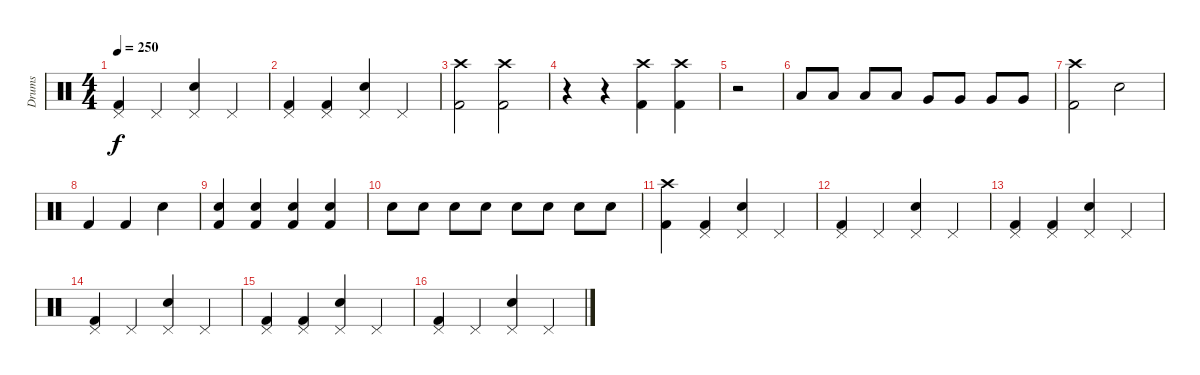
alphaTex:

\track ("Drums" "Drums") {instrument percussion}
\staff {score}
\articulation defaults
\ts (4 4)
\tempo 250
\clef neutral
\ks c
("Pedal Hi-Hat (hit)" "Kick (hit) 2").4{dy f} "Pedal Hi-Hat (hit)".4 ("Pedal Hi-Hat (hit)" "Electric Snare (hit)").4 "Pedal Hi-Hat (hit)".4 |
("Pedal Hi-Hat (hit)" "Kick (hit) 2").4 ("Pedal Hi-Hat (hit)" "Kick (hit) 2").4 ("Pedal Hi-Hat (hit)" "Electric Snare (hit)").4 "Pedal Hi-Hat (hit)".4 |
("Kick (hit) 2" "Crash high (hit)").2 ("Kick (hit) 2" "Crash high (hit)").2 |
r.4 r.4 ("Kick (hit) 2" "Crash high (hit)").4 ("Kick (hit) 2" "Crash high (hit)").4 |
r.2 |
"Low Tom (hit)".8 "Low Tom (hit)".8 "Low Tom (hit)".8 "Low Tom (hit)".8 "Very Low Tom (hit)".8 "Very Low Tom (hit)".8 "Very Low Tom (hit)".8 "Very Low Tom (hit)".8 |
("Kick (hit) 2" "Crash high (hit)").2 "Electric Snare (hit)".2 |
"Kick (hit) 2".4 "Kick (hit) 2".4 "Electric Snare (hit)".4 |
("Kick (hit) 2" "Electric Snare (hit)").4 ("Kick (hit) 2" "Electric Snare (hit)").4 ("Kick (hit) 2" "Electric Snare (hit)").4 ("Kick (hit) 2" "Electric Snare (hit)").4 |
"Electric Snare (hit)".8 "Electric Snare (hit)".8 "Electric Snare (hit)".8 "Electric Snare (hit)".8 "Electric Snare (hit)".8 "Electric Snare (hit)".8 "Electric Snare (hit)".8 "Electric Snare (hit)".8 |
("Kick (hit) 2" "Crash high (hit)").4 ("Pedal Hi-Hat (hit)" "Kick (hit) 2").4 ("Pedal Hi-Hat (hit)" "Electric Snare (hit)").4 "Pedal Hi-Hat (hit)".4 |
("Pedal Hi-Hat (hit)" "Kick (hit) 2").4 "Pedal Hi-Hat (hit)".4 ("Pedal Hi-Hat (hit)" "Electric Snare (hit)").4 "Pedal Hi-Hat (hit)".4 |
("Pedal Hi-Hat (hit)" "Kick (hit) 2").4 ("Pedal Hi-Hat (hit)" "Kick (hit) 2").4 ("Pedal Hi-Hat (hit)" "Electric Snare (hit)").4 "Pedal Hi-Hat (hit)".4 |
("Pedal Hi-Hat (hit)" "Kick (hit) 2").4 "Pedal Hi-Hat (hit)".4 ("Pedal Hi-Hat (hit)" "Electric Snare (hit)").4 "Pedal Hi-Hat (hit)".4 |
("Pedal Hi-Hat (hit)" "Kick (hit) 2").4 ("Pedal Hi-Hat (hit)" "Kick (hit) 2").4 ("Pedal Hi-Hat (hit)" "Electric Snare (hit)").4 "Pedal Hi-Hat (hit)".4 |
("Pedal Hi-Hat (hit)" "Kick (hit) 2").4 "Pedal Hi-Hat (hit)".4 ("Pedal Hi-Hat (hit)" "Electric Snare (hit)").4 "Pedal Hi-Hat (hit)".4
